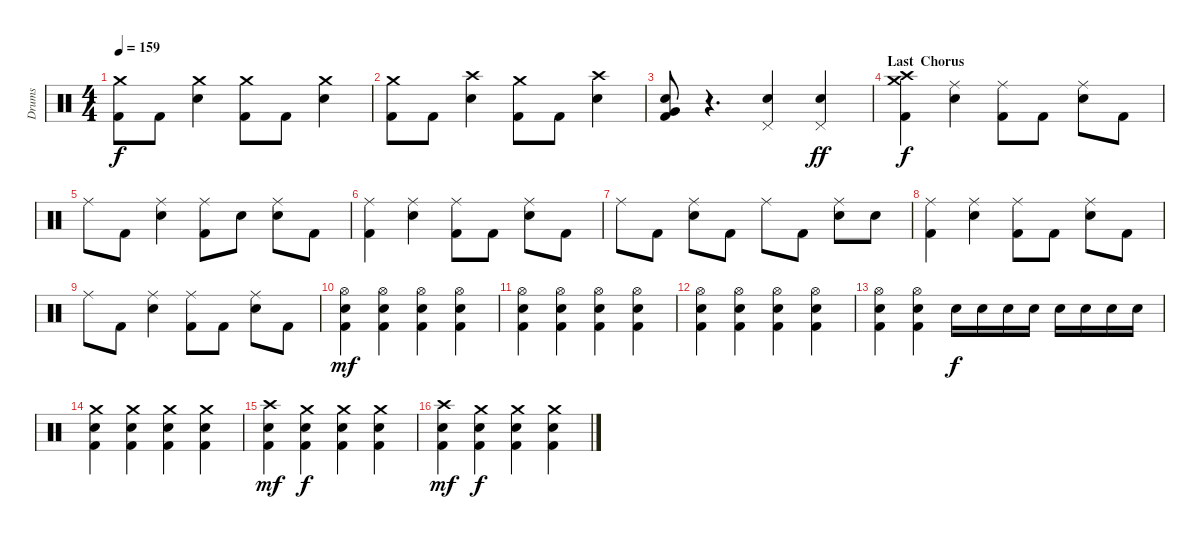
\track ("Drums" "Drums") {instrument percussion}
\staff {score}
\articulation defaults
\ts (4 4)
\tempo 159
\clef neutral
\ks c
("Crash medium (hit)" "Kick (hit) 2").8{dy f} "Kick (hit) 2".8 ("Crash medium (hit)" "Snare (hit) 2").4 ("Crash medium (hit)" "Kick (hit) 2").8 "Kick (hit) 2".8 ("Crash medium (hit)" "Snare (hit) 2").4 |
("Crash medium (hit)" "Kick (hit) 2").8 "Kick (hit) 2".8 ("Crash high (hit)" "Snare (hit) 2").4 ("Crash medium (hit)" "Kick (hit) 2").8 "Kick (hit) 2".8 ("Crash high (hit)" "Snare (hit) 2").4 |
("Snare (hit) 2" "Very Low Tom (hit)" "Kick (hit) 2").8 r.4{d} ("Pedal Hi-Hat (hit)" "Snare (hit) 2").4 ("Pedal Hi-Hat (hit)" "Snare (hit) 2").4{dy ff} |
\section ("" "Last  Chorus")
("Crash medium (hit)" "Crash high (hit)" "Kick (hit) 2").4{dy f} ("Ride (middle)" "Snare (hit) 2").4 ("Ride (middle)" "Kick (hit) 2").8 "Kick (hit) 2".8 ("Ride (middle)" "Snare (hit) 2").8 "Kick (hit) 2".8 |
"Ride (middle)".8 "Kick (hit) 2".8 ("Ride (middle)" "Snare (hit) 2").4 ("Ride (middle)" "Kick (hit) 2").8 "Snare (hit) 2".8 ("Ride (middle)" "Snare (hit) 2").8 "Kick (hit) 2".8 |
("Ride (middle)" "Kick (hit) 2").4 ("Ride (middle)" "Snare (hit) 2").4 ("Ride (middle)" "Kick (hit) 2").8 "Kick (hit) 2".8 ("Ride (middle)" "Snare (hit) 2").8 "Kick (hit) 2".8 |
"Ride (middle)".8 "Kick (hit) 2".8 ("Ride (middle)" "Snare (hit) 2").8 "Kick (hit) 2".8 "Ride (middle)".8 "Kick (hit) 2".8 ("Ride (middle)" "Snare (hit) 2").8 "Snare (hit) 2".8 |
("Ride (middle)" "Kick (hit) 2").4 ("Ride (middle)" "Snare (hit) 2").4 ("Ride (middle)" "Kick (hit) 2").8 "Kick (hit) 2".8 ("Ride (middle)" "Snare (hit) 2").8 "Kick (hit) 2".8 |
"Ride (middle)".8 "Kick (hit) 2".8 ("Ride (middle)" "Snare (hit) 2").4 ("Ride (middle)" "Kick (hit) 2").8 "Kick (hit) 2".8 ("Ride (middle)" "Snare (hit) 2").8 "Kick (hit) 2".8 |
("Hi-Hat (open)" "Snare (hit) 2" "Kick (hit) 2").4{dy mf} ("Hi-Hat (open)" "Snare (hit) 2" "Kick (hit) 2").4 ("Hi-Hat (open)" "Snare (hit) 2" "Kick (hit) 2").4 ("Hi-Hat (open)" "Snare (hit) 2" "Kick (hit) 2").4 |
("Hi-Hat (open)" "Snare (hit) 2" "Kick (hit) 2").4 ("Hi-Hat (open)" "Snare (hit) 2" "Kick (hit) 2").4 ("Hi-Hat (open)" "Snare (hit) 2" "Kick (hit) 2").4 ("Hi-Hat (open)" "Snare (hit) 2" "Kick (hit) 2").4 |
("Hi-Hat (open)" "Snare (hit) 2" "Kick (hit) 2").4 ("Hi-Hat (open)" "Snare (hit) 2" "Kick (hit) 2").4 ("Hi-Hat (open)" "Snare (hit) 2" "Kick (hit) 2").4 ("Hi-Hat (open)" "Snare (hit) 2" "Kick (hit) 2").4 |
("Hi-Hat (open)" "Snare (hit) 2" "Kick (hit) 2").4 ("Hi-Hat (open)" "Snare (hit) 2" "Kick (hit) 2").4 "Snare (hit) 2".16{dy f} "Snare (hit) 2".16 "Snare (hit) 2".16 "Snare (hit) 2".16 "Snare (hit) 2".16 "Snare (hit) 2".16 "Snare (hit) 2".16 "Snare (hit) 2".16 |
("Crash medium (hit)" "Snare (hit) 2" "Kick (hit) 2").4 ("Crash medium (hit)" "Snare (hit) 2" "Kick (hit) 2").4 ("Crash medium (hit)" "Snare (hit) 2" "Kick (hit) 2").4 ("Crash medium (hit)" "Snare (hit) 2" "Kick (hit) 2").4 |
("Crash high (hit)" "Snare (hit) 2" "Kick (hit) 2").4{dy mf} ("Crash medium (hit)" "Snare (hit) 2" "Kick (hit) 2").4{dy f} ("Crash medium (hit)" "Snare (hit) 2" "Kick (hit) 2").4 ("Crash medium (hit)" "Snare (hit) 2" "Kick (hit) 2").4 |
("Crash high (hit)" "Snare (hit) 2" "Kick (hit) 2").4{dy mf} ("Crash medium (hit)" "Snare (hit) 2" "Kick (hit) 2").4{dy f} ("Crash medium (hit)" "Snare (hit) 2" "Kick (hit) 2").4 ("Crash medium (hit)" "Snare (hit) 2" "Kick (hit) 2").4
